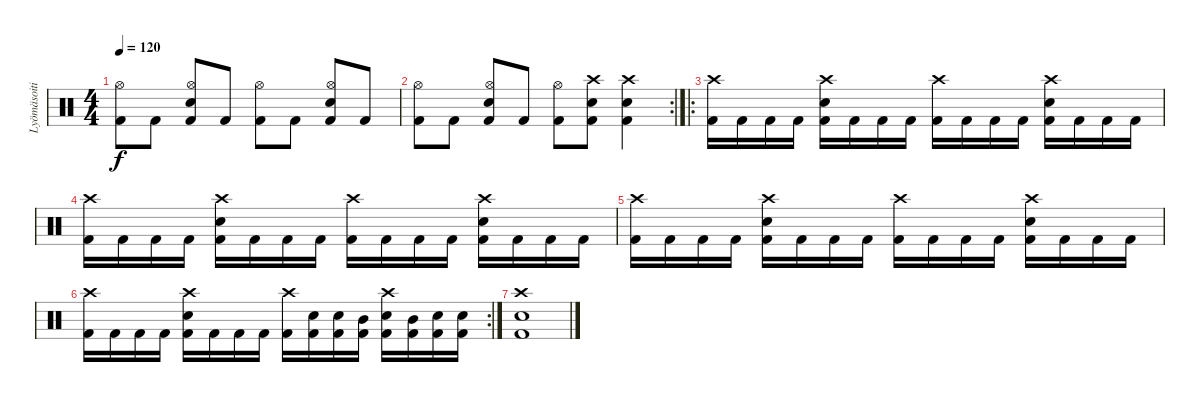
\track ("Lyömäsoitin" "Lyömäsoiti") {instrument percussion}
\staff {score}
\articulation defaults
\ts (4 4)
\tempo 120
\clef neutral
\ks c
("Kick (hit) 2" "Hi-Hat (open)").8{dy f} "Kick (hit) 2".8 ("Kick (hit) 2" "Hi-Hat (open)" "Electric Snare (hit)").8 "Kick (hit) 2".8 ("Kick (hit) 2" "Hi-Hat (open)").8 "Kick (hit) 2".8 ("Kick (hit) 2" "Hi-Hat (open)" "Electric Snare (hit)").8 "Kick (hit) 2".8 |
\rc 2
("Kick (hit) 2" "Hi-Hat (open)").8 "Kick (hit) 2".8 ("Kick (hit) 2" "Hi-Hat (open)" "Electric Snare (hit)").8 "Kick (hit) 2".8 ("Kick (hit) 2" "Hi-Hat (open)").8 ("Kick (hit) 2" "Crash high (hit)" "Electric Snare (hit)").8 ("Kick (hit) 2" "Crash high (hit)" "Electric Snare (hit)").4 |
\ro
("Kick (hit) 2" "Crash high (hit)").16 "Kick (hit) 2".16 "Kick (hit) 2".16 "Kick (hit) 2".16 ("Kick (hit) 2" "Crash high (hit)" "Electric Snare (hit)").16 "Kick (hit) 2".16 "Kick (hit) 2".16 "Kick (hit) 2".16 ("Kick (hit) 2" "Crash high (hit)").16 "Kick (hit) 2".16 "Kick (hit) 2".16 "Kick (hit) 2".16 ("Kick (hit) 2" "Crash high (hit)" "Electric Snare (hit)").16 "Kick (hit) 2".16 "Kick (hit) 2".16 "Kick (hit) 2".16 |
("Kick (hit) 2" "Crash high (hit)").16 "Kick (hit) 2".16 "Kick (hit) 2".16 "Kick (hit) 2".16 ("Kick (hit) 2" "Crash high (hit)" "Electric Snare (hit)").16 "Kick (hit) 2".16 "Kick (hit) 2".16 "Kick (hit) 2".16 ("Kick (hit) 2" "Crash high (hit)").16 "Kick (hit) 2".16 "Kick (hit) 2".16 "Kick (hit) 2".16 ("Kick (hit) 2" "Crash high (hit)" "Electric Snare (hit)").16 "Kick (hit) 2".16 "Kick (hit) 2".16 "Kick (hit) 2".16 |
("Kick (hit) 2" "Crash high (hit)").16 "Kick (hit) 2".16 "Kick (hit) 2".16 "Kick (hit) 2".16 ("Kick (hit) 2" "Crash high (hit)" "Electric Snare (hit)").16 "Kick (hit) 2".16 "Kick (hit) 2".16 "Kick (hit) 2".16 ("Kick (hit) 2" "Crash high (hit)").16 "Kick (hit) 2".16 "Kick (hit) 2".16 "Kick (hit) 2".16 ("Kick (hit) 2" "Crash high (hit)" "Electric Snare (hit)").16 "Kick (hit) 2".16 "Kick (hit) 2".16 "Kick (hit) 2".16 |
\rc 2
("Kick (hit) 2" "Crash high (hit)").16 "Kick (hit) 2".16 "Kick (hit) 2".16 "Kick (hit) 2".16 ("Kick (hit) 2" "Crash high (hit)" "Electric Snare (hit)").16 "Kick (hit) 2".16 "Kick (hit) 2".16 "Kick (hit) 2".16 ("Kick (hit) 2" "Crash high (hit)").16 ("Kick (hit) 2" "Electric Snare (hit)").16 ("Kick (hit) 2" "Electric Snare (hit)").16 ("Kick (hit) 2" "Mid Tom (hit)").16 ("Kick (hit) 2" "Crash high (hit)" "Electric Snare (hit)").16 ("Kick (hit) 2" "Mid Tom (hit)").16 ("Kick (hit) 2" "Electric Snare (hit)").16 ("Kick (hit) 2" "Electric Snare (hit)").16 |
("Kick (hit) 2" "Electric Snare (hit)" "Crash high (hit)").1
